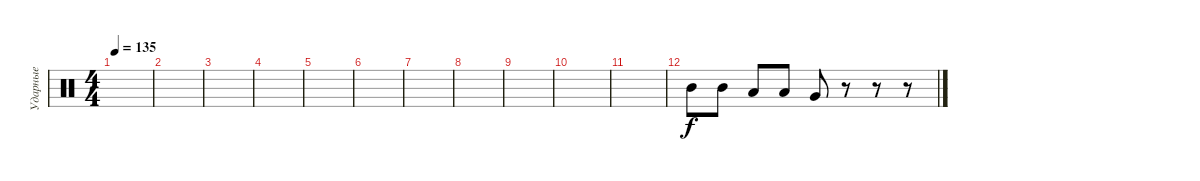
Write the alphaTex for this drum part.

\track ("Ударные" "Ударные") {instrument percussion}
\staff {score}
\articulation defaults
\ts (4 4)
\tempo 135
\clef neutral
\ks c
|
|
|
|
|
|
|
|
|
|
|
"Mid Tom (hit)".8 "Mid Tom (hit)".8 "Low Tom (hit)".8 "Low Tom (hit)".8 "Very Low Tom (hit)".8 r.8 r.8 r.8
